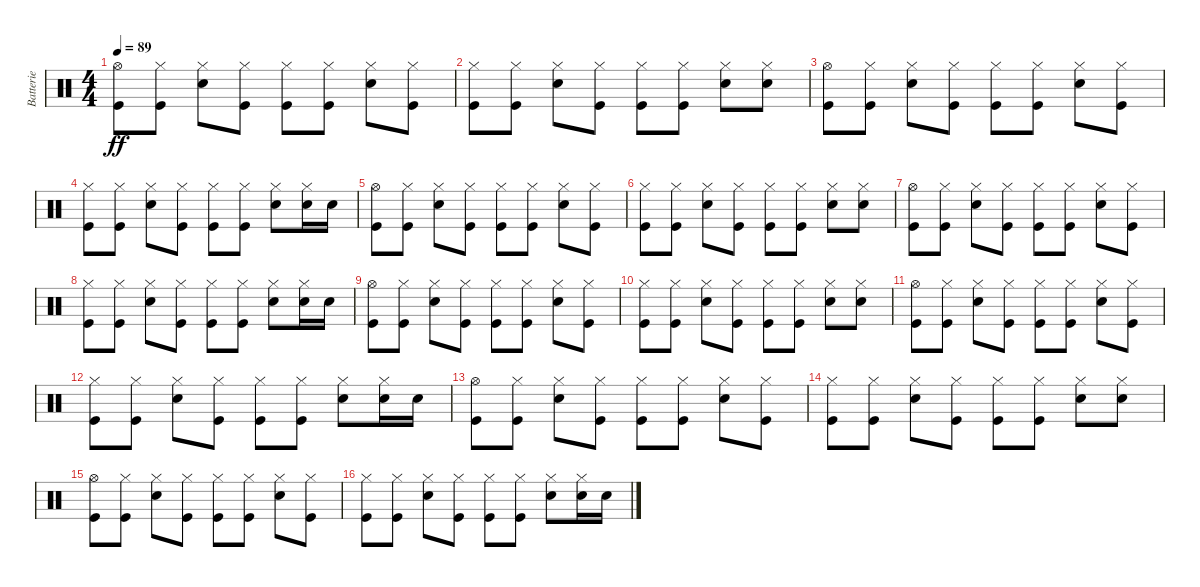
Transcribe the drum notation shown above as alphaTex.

\track ("Batterie" "Batterie") {instrument percussion}
\staff {score}
\articulation defaults
\ts (4 4)
\tempo 89
\clef neutral
\ks c
("Kick (hit)" "Hi-Hat (open)").8{dy ff} ("Kick (hit)" "Hi-Hat (closed)").8 ("Electric Snare (hit)" "Hi-Hat (closed)").8 ("Kick (hit)" "Hi-Hat (closed)").8 ("Kick (hit)" "Hi-Hat (closed)").8 ("Kick (hit)" "Hi-Hat (closed)").8 ("Electric Snare (hit)" "Hi-Hat (closed)").8 ("Kick (hit)" "Hi-Hat (closed)").8 |
("Kick (hit)" "Hi-Hat (closed)").8 ("Kick (hit)" "Hi-Hat (closed)").8 ("Electric Snare (hit)" "Hi-Hat (closed)").8 ("Kick (hit)" "Hi-Hat (closed)").8 ("Kick (hit)" "Hi-Hat (closed)").8 ("Kick (hit)" "Hi-Hat (closed)").8 ("Electric Snare (hit)" "Hi-Hat (closed)").8 ("Electric Snare (hit)" "Hi-Hat (closed)").8 |
("Kick (hit)" "Hi-Hat (open)").8 ("Kick (hit)" "Hi-Hat (closed)").8 ("Electric Snare (hit)" "Hi-Hat (closed)").8 ("Kick (hit)" "Hi-Hat (closed)").8 ("Kick (hit)" "Hi-Hat (closed)").8 ("Kick (hit)" "Hi-Hat (closed)").8 ("Electric Snare (hit)" "Hi-Hat (closed)").8 ("Kick (hit)" "Hi-Hat (closed)").8 |
("Kick (hit)" "Hi-Hat (closed)").8 ("Kick (hit)" "Hi-Hat (closed)").8 ("Electric Snare (hit)" "Hi-Hat (closed)").8 ("Kick (hit)" "Hi-Hat (closed)").8 ("Kick (hit)" "Hi-Hat (closed)").8 ("Kick (hit)" "Hi-Hat (closed)").8 ("Electric Snare (hit)" "Hi-Hat (closed)").8 ("Electric Snare (hit)" "Hi-Hat (closed)").16 "Electric Snare (hit)".16 |
("Kick (hit)" "Hi-Hat (open)").8 ("Kick (hit)" "Hi-Hat (closed)").8 ("Electric Snare (hit)" "Hi-Hat (closed)").8 ("Kick (hit)" "Hi-Hat (closed)").8 ("Kick (hit)" "Hi-Hat (closed)").8 ("Kick (hit)" "Hi-Hat (closed)").8 ("Electric Snare (hit)" "Hi-Hat (closed)").8 ("Kick (hit)" "Hi-Hat (closed)").8 |
("Kick (hit)" "Hi-Hat (closed)").8 ("Kick (hit)" "Hi-Hat (closed)").8 ("Electric Snare (hit)" "Hi-Hat (closed)").8 ("Kick (hit)" "Hi-Hat (closed)").8 ("Kick (hit)" "Hi-Hat (closed)").8 ("Kick (hit)" "Hi-Hat (closed)").8 ("Electric Snare (hit)" "Hi-Hat (closed)").8 ("Electric Snare (hit)" "Hi-Hat (closed)").8 |
("Kick (hit)" "Hi-Hat (open)").8 ("Kick (hit)" "Hi-Hat (closed)").8 ("Electric Snare (hit)" "Hi-Hat (closed)").8 ("Kick (hit)" "Hi-Hat (closed)").8 ("Kick (hit)" "Hi-Hat (closed)").8 ("Kick (hit)" "Hi-Hat (closed)").8 ("Electric Snare (hit)" "Hi-Hat (closed)").8 ("Kick (hit)" "Hi-Hat (closed)").8 |
("Kick (hit)" "Hi-Hat (closed)").8 ("Kick (hit)" "Hi-Hat (closed)").8 ("Electric Snare (hit)" "Hi-Hat (closed)").8 ("Kick (hit)" "Hi-Hat (closed)").8 ("Kick (hit)" "Hi-Hat (closed)").8 ("Kick (hit)" "Hi-Hat (closed)").8 ("Electric Snare (hit)" "Hi-Hat (closed)").8 ("Electric Snare (hit)" "Hi-Hat (closed)").16 "Electric Snare (hit)".16 |
("Kick (hit)" "Hi-Hat (open)").8 ("Kick (hit)" "Hi-Hat (closed)").8 ("Electric Snare (hit)" "Hi-Hat (closed)").8 ("Kick (hit)" "Hi-Hat (closed)").8 ("Kick (hit)" "Hi-Hat (closed)").8 ("Kick (hit)" "Hi-Hat (closed)").8 ("Electric Snare (hit)" "Hi-Hat (closed)").8 ("Kick (hit)" "Hi-Hat (closed)").8 |
("Kick (hit)" "Hi-Hat (closed)").8 ("Kick (hit)" "Hi-Hat (closed)").8 ("Electric Snare (hit)" "Hi-Hat (closed)").8 ("Kick (hit)" "Hi-Hat (closed)").8 ("Kick (hit)" "Hi-Hat (closed)").8 ("Kick (hit)" "Hi-Hat (closed)").8 ("Electric Snare (hit)" "Hi-Hat (closed)").8 ("Electric Snare (hit)" "Hi-Hat (closed)").8 |
("Kick (hit)" "Hi-Hat (open)").8 ("Kick (hit)" "Hi-Hat (closed)").8 ("Electric Snare (hit)" "Hi-Hat (closed)").8 ("Kick (hit)" "Hi-Hat (closed)").8 ("Kick (hit)" "Hi-Hat (closed)").8 ("Kick (hit)" "Hi-Hat (closed)").8 ("Electric Snare (hit)" "Hi-Hat (closed)").8 ("Kick (hit)" "Hi-Hat (closed)").8 |
("Kick (hit)" "Hi-Hat (closed)").8 ("Kick (hit)" "Hi-Hat (closed)").8 ("Electric Snare (hit)" "Hi-Hat (closed)").8 ("Kick (hit)" "Hi-Hat (closed)").8 ("Kick (hit)" "Hi-Hat (closed)").8 ("Kick (hit)" "Hi-Hat (closed)").8 ("Electric Snare (hit)" "Hi-Hat (closed)").8 ("Electric Snare (hit)" "Hi-Hat (closed)").16 "Electric Snare (hit)".16 |
("Kick (hit)" "Hi-Hat (open)").8 ("Kick (hit)" "Hi-Hat (closed)").8 ("Electric Snare (hit)" "Hi-Hat (closed)").8 ("Kick (hit)" "Hi-Hat (closed)").8 ("Kick (hit)" "Hi-Hat (closed)").8 ("Kick (hit)" "Hi-Hat (closed)").8 ("Electric Snare (hit)" "Hi-Hat (closed)").8 ("Kick (hit)" "Hi-Hat (closed)").8 |
("Kick (hit)" "Hi-Hat (closed)").8 ("Kick (hit)" "Hi-Hat (closed)").8 ("Electric Snare (hit)" "Hi-Hat (closed)").8 ("Kick (hit)" "Hi-Hat (closed)").8 ("Kick (hit)" "Hi-Hat (closed)").8 ("Kick (hit)" "Hi-Hat (closed)").8 ("Electric Snare (hit)" "Hi-Hat (closed)").8 ("Electric Snare (hit)" "Hi-Hat (closed)").8 |
("Kick (hit)" "Hi-Hat (open)").8 ("Kick (hit)" "Hi-Hat (closed)").8 ("Electric Snare (hit)" "Hi-Hat (closed)").8 ("Kick (hit)" "Hi-Hat (closed)").8 ("Kick (hit)" "Hi-Hat (closed)").8 ("Kick (hit)" "Hi-Hat (closed)").8 ("Electric Snare (hit)" "Hi-Hat (closed)").8 ("Kick (hit)" "Hi-Hat (closed)").8 |
("Kick (hit)" "Hi-Hat (closed)").8 ("Kick (hit)" "Hi-Hat (closed)").8 ("Electric Snare (hit)" "Hi-Hat (closed)").8 ("Kick (hit)" "Hi-Hat (closed)").8 ("Kick (hit)" "Hi-Hat (closed)").8 ("Kick (hit)" "Hi-Hat (closed)").8 ("Electric Snare (hit)" "Hi-Hat (closed)").8 ("Electric Snare (hit)" "Hi-Hat (closed)").16 "Electric Snare (hit)".16
